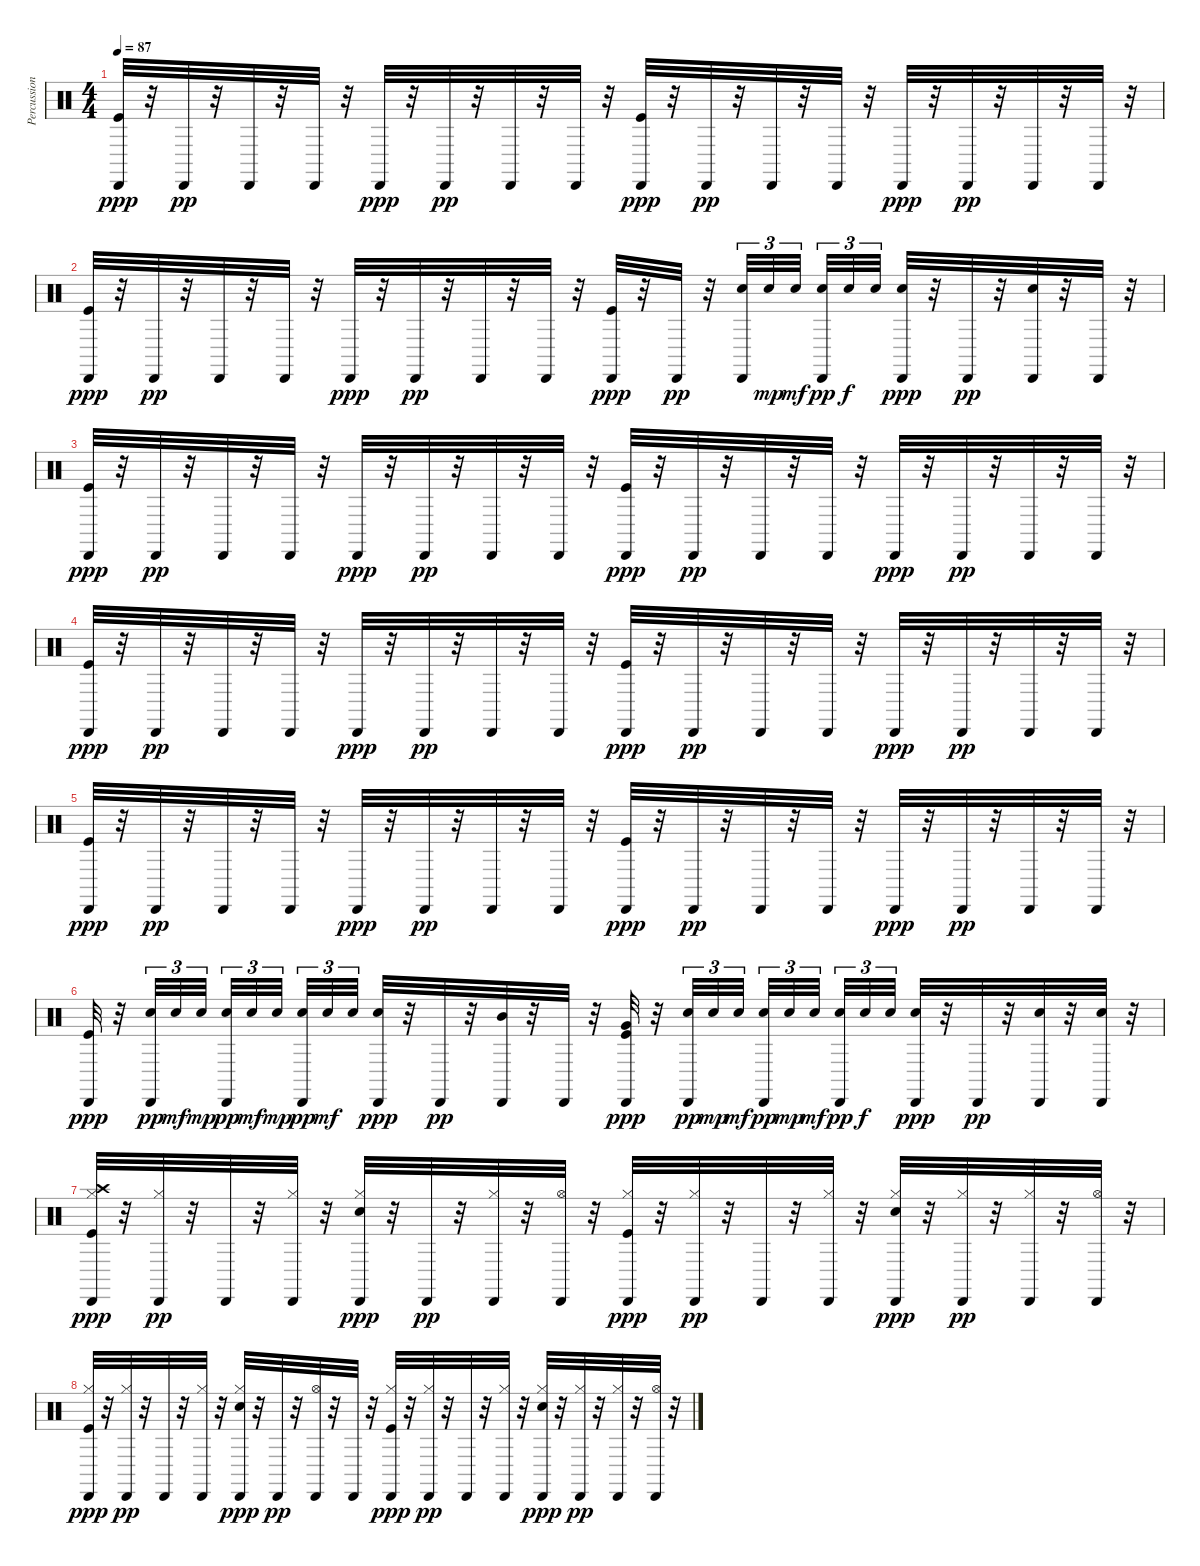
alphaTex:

\track ("Percussion" "Percussion") {instrument percussion}
\staff {score}
\articulation defaults
\ts (4 4)
\tempo 87
\clef neutral
\ks c
("Kick (hit)" "Cabasa (hit)").32{dy ppp} r.32 "Cabasa (hit)".32{dy pp} r.32 "Cabasa (hit)".32 r.32 "Cabasa (hit)".32 r.32 "Cabasa (hit)".32{dy ppp} r.32 "Cabasa (hit)".32{dy pp} r.32 "Cabasa (hit)".32 r.32 "Cabasa (hit)".32 r.32 ("Kick (hit)" "Cabasa (hit)").32{dy ppp} r.32 "Cabasa (hit)".32{dy pp} r.32 "Cabasa (hit)".32 r.32 "Cabasa (hit)".32 r.32 "Cabasa (hit)".32{dy ppp} r.32 "Cabasa (hit)".32{dy pp} r.32 "Cabasa (hit)".32 r.32 "Cabasa (hit)".32 r.32 |
("Kick (hit)" "Cabasa (hit)").32{dy ppp} r.32 "Cabasa (hit)".32{dy pp} r.32 "Cabasa (hit)".32 r.32 "Cabasa (hit)".32 r.32 "Cabasa (hit)".32{dy ppp} r.32 "Cabasa (hit)".32{dy pp} r.32 "Cabasa (hit)".32 r.32 "Cabasa (hit)".32 r.32 ("Kick (hit)" "Cabasa (hit)").32{dy ppp} r.32 "Cabasa (hit)".32{dy pp} r.32 ("Snare (hit) 2" "Cabasa (hit)").32{tu (3 2)} "Snare (hit) 2".32{tu (3 2) dy mp} "Snare (hit) 2".32{tu (3 2) dy mf beam splitsecondary} ("Snare (hit) 2" "Cabasa (hit)").32{tu (3 2) dy pp} "Snare (hit) 2".32{tu (3 2) dy f} "Snare (hit) 2".32{tu (3 2)} ("Snare (hit) 2" "Cabasa (hit)").32{dy ppp} r.32 "Cabasa (hit)".32{dy pp} r.32 ("Snare (hit) 2" "Cabasa (hit)").32 r.32 "Cabasa (hit)".32 r.32 |
("Kick (hit)" "Cabasa (hit)").32{dy ppp} r.32 "Cabasa (hit)".32{dy pp} r.32 "Cabasa (hit)".32 r.32 "Cabasa (hit)".32 r.32 "Cabasa (hit)".32{dy ppp} r.32 "Cabasa (hit)".32{dy pp} r.32 "Cabasa (hit)".32 r.32 "Cabasa (hit)".32 r.32 ("Kick (hit)" "Cabasa (hit)").32{dy ppp} r.32 "Cabasa (hit)".32{dy pp} r.32 "Cabasa (hit)".32 r.32 "Cabasa (hit)".32 r.32 "Cabasa (hit)".32{dy ppp} r.32 "Cabasa (hit)".32{dy pp} r.32 "Cabasa (hit)".32 r.32 "Cabasa (hit)".32 r.32 |
("Kick (hit)" "Cabasa (hit)").32{dy ppp} r.32 "Cabasa (hit)".32{dy pp} r.32 "Cabasa (hit)".32 r.32 "Cabasa (hit)".32 r.32 "Cabasa (hit)".32{dy ppp} r.32 "Cabasa (hit)".32{dy pp} r.32 "Cabasa (hit)".32 r.32 "Cabasa (hit)".32 r.32 ("Kick (hit)" "Cabasa (hit)").32{dy ppp} r.32 "Cabasa (hit)".32{dy pp} r.32 "Cabasa (hit)".32 r.32 "Cabasa (hit)".32 r.32 "Cabasa (hit)".32{dy ppp} r.32 "Cabasa (hit)".32{dy pp} r.32 "Cabasa (hit)".32 r.32 "Cabasa (hit)".32 r.32 |
("Kick (hit)" "Cabasa (hit)").32{dy ppp} r.32 "Cabasa (hit)".32{dy pp} r.32 "Cabasa (hit)".32 r.32 "Cabasa (hit)".32 r.32 "Cabasa (hit)".32{dy ppp} r.32 "Cabasa (hit)".32{dy pp} r.32 "Cabasa (hit)".32 r.32 "Cabasa (hit)".32 r.32 ("Kick (hit)" "Cabasa (hit)").32{dy ppp} r.32 "Cabasa (hit)".32{dy pp} r.32 "Cabasa (hit)".32 r.32 "Cabasa (hit)".32 r.32 "Cabasa (hit)".32{dy ppp} r.32 "Cabasa (hit)".32{dy pp} r.32 "Cabasa (hit)".32 r.32 "Cabasa (hit)".32 r.32 |
("Kick (hit)" "Cabasa (hit)").32{dy ppp} r.32 ("Snare (hit) 2" "Cabasa (hit)").32{tu (3 2) dy pp} "Snare (hit) 2".32{tu (3 2) dy mf} "Snare (hit) 2".32{tu (3 2) dy mp beam splitsecondary} ("Snare (hit) 2" "Cabasa (hit)").32{tu (3 2) dy pp} "Snare (hit) 2".32{tu (3 2) dy mf} "Snare (hit) 2".32{tu (3 2) dy mp beam splitsecondary} ("Snare (hit) 2" "Cabasa (hit)").32{tu (3 2) dy pp} "Snare (hit) 2".32{tu (3 2) dy mf} "Snare (hit) 2".32{tu (3 2)} ("Snare (hit) 2" "Cabasa (hit)").32{dy ppp} r.32 "Cabasa (hit)".32{dy pp} r.32 ("Mid Tom (hit)" "Cabasa (hit)").32 r.32 "Cabasa (hit)".32 r.32 ("Kick (hit)" "Very Low Tom (hit)" "Cabasa (hit)").32{dy ppp} r.32 ("Snare (hit) 2" "Cabasa (hit)").32{tu (3 2) dy pp} "Snare (hit) 2".32{tu (3 2) dy mp} "Snare (hit) 2".32{tu (3 2) dy mf beam splitsecondary} ("Snare (hit) 2" "Cabasa (hit)").32{tu (3 2) dy pp} "Snare (hit) 2".32{tu (3 2) dy mp} "Snare (hit) 2".32{tu (3 2) dy mf beam splitsecondary} ("Snare (hit) 2" "Cabasa (hit)").32{tu (3 2) dy pp} "Snare (hit) 2".32{tu (3 2) dy f} "Snare (hit) 2".32{tu (3 2)} ("Snare (hit) 2" "Cabasa (hit)").32{dy ppp} r.32 "Cabasa (hit)".32{dy pp} r.32 ("Snare (hit) 2" "Cabasa (hit)").32 r.32 ("Snare (hit) 2" "Cabasa (hit)").32 r.32 |
("Kick (hit)" "Hi-Hat (closed)" "Crash high (hit)" "Cabasa (hit)").32{dy ppp} r.32 ("Hi-Hat (closed)" "Cabasa (hit)").32{dy pp} r.32 "Cabasa (hit)".32 r.32 ("Hi-Hat (closed)" "Cabasa (hit)").32 r.32 ("Snare (hit) 2" "Hi-Hat (closed)" "Cabasa (hit)").32{dy ppp} r.32 "Cabasa (hit)".32{dy pp} r.32 ("Hi-Hat (closed)" "Cabasa (hit)").32 r.32 ("Hi-Hat (open)" "Cabasa (hit)").32 r.32 ("Kick (hit)" "Hi-Hat (closed)" "Cabasa (hit)").32{dy ppp} r.32 ("Hi-Hat (closed)" "Cabasa (hit)").32{dy pp} r.32 "Cabasa (hit)".32 r.32 ("Hi-Hat (closed)" "Cabasa (hit)").32 r.32 ("Snare (hit) 2" "Hi-Hat (closed)" "Cabasa (hit)").32{dy ppp} r.32 ("Hi-Hat (closed)" "Cabasa (hit)").32{dy pp} r.32 ("Hi-Hat (closed)" "Cabasa (hit)").32 r.32 ("Hi-Hat (open)" "Cabasa (hit)").32 r.32 |
("Kick (hit)" "Hi-Hat (closed)" "Cabasa (hit)").32{dy ppp} r.32 ("Hi-Hat (closed)" "Cabasa (hit)").32{dy pp} r.32 "Cabasa (hit)".32 r.32 ("Hi-Hat (closed)" "Cabasa (hit)").32 r.32 ("Snare (hit) 2" "Hi-Hat (closed)" "Cabasa (hit)").32{dy ppp} r.32 "Cabasa (hit)".32{dy pp} r.32 ("Hi-Hat (open)" "Cabasa (hit)").32 r.32 "Cabasa (hit)".32 r.32 ("Kick (hit)" "Hi-Hat (closed)" "Cabasa (hit)").32{dy ppp} r.32 ("Hi-Hat (closed)" "Cabasa (hit)").32{dy pp} r.32 "Cabasa (hit)".32 r.32 ("Hi-Hat (closed)" "Cabasa (hit)").32 r.32 ("Snare (hit) 2" "Hi-Hat (closed)" "Cabasa (hit)").32{dy ppp} r.32 ("Hi-Hat (closed)" "Cabasa (hit)").32{dy pp} r.32 ("Hi-Hat (closed)" "Cabasa (hit)").32 r.32 ("Hi-Hat (open)" "Cabasa (hit)").32 r.32
